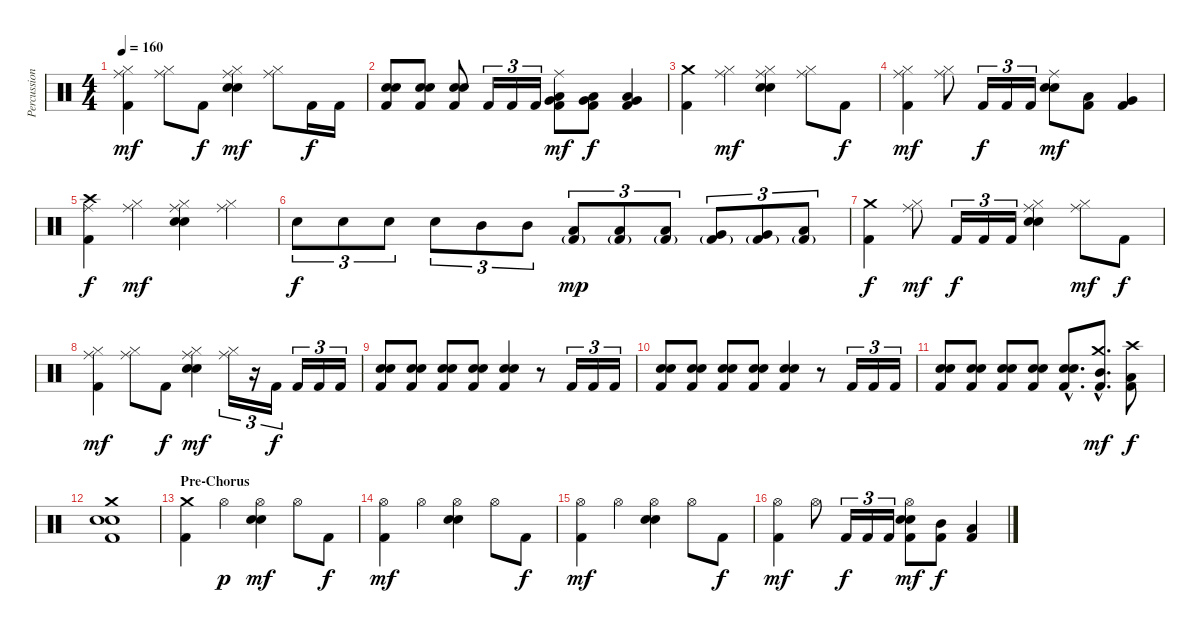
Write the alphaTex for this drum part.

\track ("Percussion" "Percussion") {instrument percussion}
\staff {score}
\articulation defaults
\ts (4 4)
\tempo 160
\clef neutral
\ks c
("Ride (middle)" "Hi-Hat (closed)" "Kick (hit) 2").4{dy mf} ("Ride (middle)" "Hi-Hat (closed)").8 "Kick (hit) 2".8{dy f} ("Ride (middle)" "Hi-Hat (closed)" "Electric Snare (hit)" "Snare (hit) 2").4{dy mf} ("Ride (middle)" "Hi-Hat (closed)").8 "Kick (hit) 2".16{dy f} "Kick (hit) 2".16 |
("Electric Snare (hit)" "Snare (hit) 2" "Kick (hit) 2").8 ("Electric Snare (hit)" "Snare (hit) 2" "Kick (hit) 2").8 ("Electric Snare (hit)" "Snare (hit) 2" "Kick (hit) 2").8 "Kick (hit) 2".16{tu (3 2)} "Kick (hit) 2".16{tu (3 2)} "Kick (hit) 2".16{tu (3 2)} ("Ride (middle)" "Very Low Tom (hit)" "Low Tom (hit)" "Kick (hit) 2").8{dy mf} ("Very Low Tom (hit)" "Low Tom (hit)" "Kick (hit) 2").8{dy f} ("Very Low Tom (hit)" "Low Tom (hit)" "Kick (hit) 2").4 |
("Crash medium (hit)" "Kick (hit) 2").4 ("Ride (middle)" "Hi-Hat (closed)").4{dy mf} ("Ride (middle)" "Hi-Hat (closed)" "Electric Snare (hit)" "Snare (hit) 2").4 ("Ride (middle)" "Hi-Hat (closed)").8 "Kick (hit) 2".8{dy f} |
("Ride (middle)" "Hi-Hat (closed)" "Kick (hit) 2").4{dy mf} ("Ride (middle)" "Hi-Hat (closed)").8 "Kick (hit) 2".16{tu (3 2) dy f} "Kick (hit) 2".16{tu (3 2)} "Kick (hit) 2".16{tu (3 2)} ("Ride (middle)" "Electric Snare (hit)" "Snare (hit) 2").8{dy mf} ("Low Tom (hit)" "Kick (hit) 2").8 ("Very Low Tom (hit)" "Kick (hit) 2").4 |
("Crash high (hit)" "Ride (middle)" "Kick (hit) 2").4{dy f} ("Ride (middle)" "Hi-Hat (closed)").4{dy mf} ("Ride (middle)" "Hi-Hat (closed)" "Electric Snare (hit)" "Snare (hit) 2").4 ("Ride (middle)" "Hi-Hat (closed)").4 |
"Electric Snare (hit)".8{tu (3 2) dy f} "Electric Snare (hit)".8{tu (3 2)} "Electric Snare (hit)".8{tu (3 2)} "Electric Snare (hit)".8{tu (3 2)} "Mid Tom (hit)".8{tu (3 2)} "Mid Tom (hit)".8{tu (3 2)} ("Low Tom (hit)" "Kick (hit) 2"{g}).8{tu (3 2) dy mp} ("Low Tom (hit)" "Kick (hit) 2"{g}).8{tu (3 2)} ("Low Tom (hit)" "Kick (hit) 2"{g}).8{tu (3 2)} ("Very Low Tom (hit)" "Kick (hit) 2"{g}).8{tu (3 2)} ("Very Low Tom (hit)" "Kick (hit) 2"{g}).8{tu (3 2)} ("Low Floor Tom (hit)" "Kick (hit) 2"{g}).8{tu (3 2)} |
("Crash medium (hit)" "Kick (hit) 2").4{dy f} ("Ride (middle)" "Hi-Hat (closed)").8{dy mf} "Kick (hit) 2".16{tu (3 2) dy f} "Kick (hit) 2".16{tu (3 2)} "Kick (hit) 2".16{tu (3 2)} ("Ride (middle)" "Hi-Hat (closed)" "Electric Snare (hit)" "Snare (hit) 2").4 ("Ride (middle)" "Hi-Hat (closed)").8{dy mf} "Kick (hit) 2".8{dy f} |
("Ride (middle)" "Hi-Hat (closed)" "Kick (hit) 2").4{dy mf} ("Ride (middle)" "Hi-Hat (closed)").8 "Kick (hit) 2".8{dy f} ("Ride (middle)" "Hi-Hat (closed)" "Electric Snare (hit)" "Snare (hit) 2").4{dy mf} ("Ride (middle)" "Hi-Hat (closed)").16{tu (3 2)} r.16{tu (3 2)} "Kick (hit) 2".16{tu (3 2) dy f} "Kick (hit) 2".16{tu (3 2)} "Kick (hit) 2".16{tu (3 2)} "Kick (hit) 2".16{tu (3 2)} |
("Electric Snare (hit)" "Snare (hit) 2" "Kick (hit) 2").8 ("Electric Snare (hit)" "Snare (hit) 2" "Kick (hit) 2").8 ("Electric Snare (hit)" "Snare (hit) 2" "Kick (hit) 2").8 ("Electric Snare (hit)" "Snare (hit) 2" "Kick (hit) 2").8 ("Electric Snare (hit)" "Snare (hit) 2" "Kick (hit) 2").4 r.8 "Kick (hit) 2".16{tu (3 2)} "Kick (hit) 2".16{tu (3 2)} "Kick (hit) 2".16{tu (3 2)} |
("Electric Snare (hit)" "Snare (hit) 2" "Kick (hit) 2").8 ("Electric Snare (hit)" "Snare (hit) 2" "Kick (hit) 2").8 ("Electric Snare (hit)" "Snare (hit) 2" "Kick (hit) 2").8 ("Electric Snare (hit)" "Snare (hit) 2" "Kick (hit) 2").8 ("Electric Snare (hit)" "Snare (hit) 2" "Kick (hit) 2").4 r.8 "Kick (hit) 2".16{tu (3 2)} "Kick (hit) 2".16{tu (3 2)} "Kick (hit) 2".16{tu (3 2)} |
("Electric Snare (hit)" "Snare (hit) 2" "Kick (hit) 2").8 ("Electric Snare (hit)" "Snare (hit) 2" "Kick (hit) 2").8 ("Electric Snare (hit)" "Snare (hit) 2" "Kick (hit) 2").8 ("Electric Snare (hit)" "Snare (hit) 2" "Kick (hit) 2").8 ("Electric Snare (hit)"{hac} "Snare (hit) 2"{hac} "Kick (hit) 2"{hac}).8{d} ("Crash medium (hit)"{hac} "Mid Tom (hit)"{hac} "Kick (hit) 2"{hac}).8{d dy mf} ("Crash high (hit)" "Low Tom (hit)" "Kick (hit) 2").8{dy f} |
("Crash medium (hit)" "Electric Snare (hit)" "Snare (hit) 2" "Kick (hit) 2").1 |
\section ("" "Pre-Chorus")
("Crash medium (hit)" "Kick (hit) 2").4 "Hi-Hat (open)".4{dy p} ("Hi-Hat (open)" "Snare (hit) 2" "Electric Snare (hit)").4{dy mf} "Hi-Hat (open)".8 "Kick (hit) 2".8{dy f} |
("Hi-Hat (open)" "Kick (hit) 2").4{dy mf} "Hi-Hat (open)".4 ("Hi-Hat (open)" "Snare (hit) 2" "Electric Snare (hit)").4 "Hi-Hat (open)".8 "Kick (hit) 2".8{dy f} |
("Hi-Hat (open)" "Kick (hit) 2").4{dy mf} "Hi-Hat (open)".4 ("Hi-Hat (open)" "Snare (hit) 2" "Electric Snare (hit)").4 "Hi-Hat (open)".8 "Kick (hit) 2".8{dy f} |
("Hi-Hat (open)" "Kick (hit) 2").4{dy mf} "Hi-Hat (open)".8 "Kick (hit) 2".16{tu (3 2) dy f} "Kick (hit) 2".16{tu (3 2)} "Kick (hit) 2".16{tu (3 2)} ("Hi-Hat (open)" "Snare (hit) 2" "Electric Snare (hit)" "Kick (hit) 2").8{dy mf} ("Mid Tom (hit)" "Kick (hit) 2").8{dy f} ("Low Tom (hit)" "Kick (hit) 2").4
